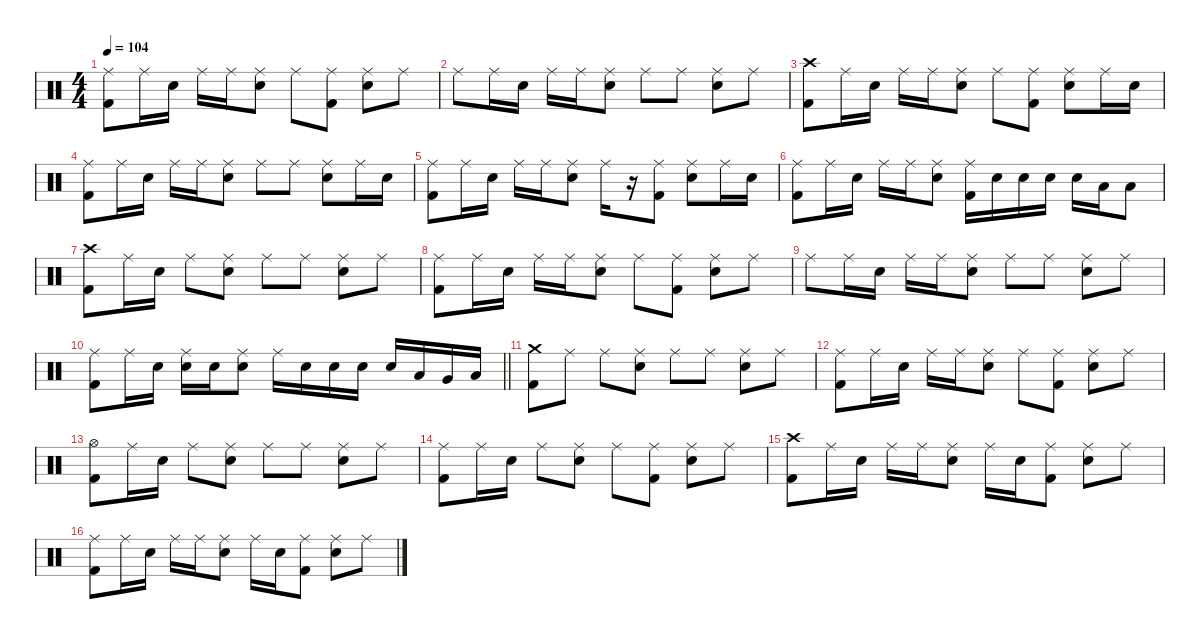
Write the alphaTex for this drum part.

\defaultSystemsLayout 4
\hideDynamics
\bracketExtendMode nobrackets
\singleTrackTrackNamePolicy hidden
\multiTrackTrackNamePolicy hidden
\firstSystemTrackNameMode fullname
\firstSystemTrackNameOrientation horizontal
\otherSystemsTrackNameOrientation horizontal
\track ("Drums" "drm.") {instrument percussion}
\staff {score}
\articulation defaults
\ts (4 4)
\tempo 104
\clef neutral
\ks c
("Ride (middle)" "Kick (hit) 2").8{dy ff beam Down} "Ride (middle)".16{beam Down} "Snare (hit) 2".16{dy mf beam Down} "Ride (middle)".16{dy ff beam Down} "Ride (middle)".16{dy f beam Down} ("Ride (middle)" "Snare (hit) 2").8{dy ff beam Down} "Ride (middle)".8{beam Down} ("Ride (middle)" "Kick (hit) 2").8{beam Down} ("Ride (middle)" "Snare (hit) 2").8{beam Down} "Ride (middle)".8{beam Down} |
"Ride (middle)".8{beam Down} "Ride (middle)".16{beam Down} "Snare (hit) 2".16{dy mf beam Down} "Ride (middle)".16{dy ff beam Down} "Ride (middle)".16{dy f beam Down} ("Ride (middle)" "Snare (hit) 2").8{dy ff beam Down} "Ride (middle)".8{beam Down} "Ride (middle)".8{beam Down} ("Ride (middle)" "Snare (hit) 2").8{beam Down} "Ride (middle)".8{beam Down} |
("Crash high (hit)" "Kick (hit) 2").8{beam Down} "Ride (middle)".16{beam Down} "Snare (hit) 2".16{dy mf beam Down} "Ride (middle)".16{dy ff beam Down} "Ride (middle)".16{dy f beam Down} ("Ride (middle)" "Snare (hit) 2").8{dy ff beam Down} "Ride (middle)".8{beam Down} ("Ride (middle)" "Kick (hit) 2").8{beam Down} ("Ride (middle)" "Snare (hit) 2").8{beam Down} "Ride (middle)".16{beam Down} "Snare (hit) 2".16{dy f beam Down} |
("Ride (middle)" "Kick (hit) 2").8{dy ff beam Down} "Ride (middle)".16{beam Down} "Snare (hit) 2".16{dy mf beam Down} "Ride (middle)".16{dy ff beam Down} "Ride (middle)".16{dy f beam Down} ("Ride (middle)" "Snare (hit) 2").8{dy ff beam Down} "Ride (middle)".8{beam Down} "Ride (middle)".8{beam Down} ("Ride (middle)" "Snare (hit) 2").8{beam Down} "Ride (middle)".16{beam Down} "Snare (hit) 2".16{dy mf beam Down} |
("Ride (middle)" "Kick (hit) 2").8{dy ff beam Down} "Ride (middle)".16{beam Down} "Snare (hit) 2".16{dy f beam Down} "Ride (middle)".16{dy ff beam Down} "Ride (middle)".16{dy f beam Down} ("Ride (middle)" "Snare (hit) 2").8{dy ff beam Down} "Ride (middle)".16{beam Down} r.16{beam Down} ("Ride (middle)" "Kick (hit) 2").8{beam Down} ("Ride (middle)" "Snare (hit) 2").8{beam Down} "Ride (middle)".16{beam Down} "Snare (hit) 2".16{dy mf beam Down} |
("Ride (middle)" "Kick (hit) 2").8{dy ff beam Down} "Ride (middle)".16{beam Down} "Snare (hit) 2".16{dy mf beam Down} "Ride (middle)".16{dy ff beam Down} "Ride (middle)".16{dy f beam Down} ("Ride (middle)" "Snare (hit) 2").8{dy ff beam Down} ("Ride (middle)" "Kick (hit) 2").16{beam Down} "Snare (hit) 2".16{dy mf beam Down} "Snare (hit) 2".16{dy f beam Down} "Snare (hit) 2".16{beam Down} "Snare (hit) 2".16{dy ff beam Down} "Low Tom (hit)".16{beam Down} "Low Floor Tom (hit)".8{beam Down} |
("Crash high (hit)" "Kick (hit) 2").8{beam Down} "Ride (middle)".16{beam Down} "Snare (hit) 2".16{dy mf beam Down} "Ride (middle)".8{dy ff beam Down} ("Ride (middle)" "Snare (hit) 2").8{beam Down} "Ride (middle)".8{beam Down} "Ride (middle)".8{beam Down} ("Ride (middle)" "Snare (hit) 2").8{beam Down} "Ride (middle)".8{beam Down} |
("Ride (middle)" "Kick (hit) 2").8{beam Down} "Ride (middle)".16{beam Down} "Snare (hit) 2".16{dy mf beam Down} "Ride (middle)".16{dy ff beam Down} "Ride (middle)".16{beam Down} ("Ride (middle)" "Snare (hit) 2").8{beam Down} "Ride (middle)".8{beam Down} ("Ride (middle)" "Kick (hit) 2").8{beam Down} ("Ride (middle)" "Snare (hit) 2").8{beam Down} "Ride (middle)".8{beam Down} |
"Ride (middle)".8{beam Down} "Ride (middle)".16{beam Down} "Snare (hit) 2".16{dy mf beam Down} "Ride (middle)".16{dy ff beam Down} "Ride (middle)".16{beam Down} ("Ride (middle)" "Snare (hit) 2").8{beam Down} "Ride (middle)".8{beam Down} "Ride (middle)".8{beam Down} ("Ride (middle)" "Snare (hit) 2").8{beam Down} "Ride (middle)".8{beam Down} |
\barLineRight lightlight
("Ride (middle)" "Kick (hit) 2").8{beam Down} "Ride (middle)".16{beam Down} "Snare (hit) 2".16{dy mf beam Down} ("Ride (middle)" "Snare (hit) 2").16{dy ff beam Down} "Snare (hit) 2".16{dy f beam Down} ("Ride (middle)" "Snare (hit) 2").8{dy ff beam Down} "Ride (middle)".16{beam Down} "Snare (hit) 2".16{dy f beam Down} "Snare (hit) 2".16{beam Down} "Snare (hit) 2".16{beam Down} "Snare (hit) 2".16{dy ff beam Up} "Low Tom (hit)".16{beam Up} "Very Low Tom (hit)".16{beam Up} "Low Floor Tom (hit)".16{beam Up} |
("Crash medium (hit)" "Kick (hit) 2").8{beam Down} "Ride (middle)".8{beam Down} "Ride (middle)".8{beam Down} ("Ride (middle)" "Snare (hit) 2").8{beam Down} "Ride (middle)".8{beam Down} "Ride (middle)".8{beam Down} ("Ride (middle)" "Snare (hit) 2").8{beam Down} "Ride (middle)".8{beam Down} |
("Ride (middle)" "Kick (hit) 2").8{beam Down} "Ride (middle)".16{beam Down} "Snare (hit) 2".16{dy mf beam Down} "Ride (middle)".16{dy ff beam Down} "Ride (middle)".16{beam Down} ("Ride (middle)" "Snare (hit) 2").8{beam Down} "Ride (middle)".8{beam Down} ("Ride (middle)" "Kick (hit) 2").8{beam Down} ("Ride (middle)" "Snare (hit) 2").8{beam Down} "Ride (middle)".8{beam Down} |
("Hi-Hat (open)" "Kick (hit) 2").8{beam Down} "Ride (middle)".16{beam Down} "Snare (hit) 2".16{dy mf beam Down} "Ride (middle)".8{dy ff beam Down} ("Ride (middle)" "Snare (hit) 2").8{beam Down} "Ride (middle)".8{beam Down} "Ride (middle)".8{beam Down} ("Ride (middle)" "Snare (hit) 2").8{beam Down} "Ride (middle)".8{beam Down} |
("Ride (middle)" "Kick (hit) 2").8{beam Down} "Ride (middle)".16{beam Down} "Snare (hit) 2".16{dy mf beam Down} "Ride (middle)".8{dy ff beam Down} ("Ride (middle)" "Snare (hit) 2").8{beam Down} "Ride (middle)".8{beam Down} ("Ride (middle)" "Kick (hit) 2").8{beam Down} ("Ride (middle)" "Snare (hit) 2").8{beam Down} "Ride (middle)".8{beam Down} |
("Crash high (hit)" "Kick (hit) 2").8{beam Down} "Ride (middle)".16{beam Down} "Snare (hit) 2".16{dy mf beam Down} "Ride (middle)".16{dy ff beam Down} "Ride (middle)".16{dy f beam Down} ("Ride (middle)" "Snare (hit) 2").8{dy ff beam Down} "Ride (middle)".16{beam Down} "Snare (hit) 2".16{dy mf beam Down} ("Ride (middle)" "Kick (hit) 2").8{dy ff beam Down} ("Ride (middle)" "Snare (hit) 2").8{beam Down} "Ride (middle)".8{beam Down} |
("Ride (middle)" "Kick (hit) 2").8{beam Down} "Ride (middle)".16{beam Down} "Snare (hit) 2".16{dy mf beam Down} "Ride (middle)".16{dy ff beam Down} "Ride (middle)".16{dy f beam Down} ("Ride (middle)" "Snare (hit) 2").8{beam Down} "Ride (middle)".16{dy ff beam Down} "Snare (hit) 2".16{dy mf beam Down} ("Ride (middle)" "Kick (hit) 2").8{dy ff beam Down} ("Ride (middle)" "Snare (hit) 2").8{beam Down} "Ride (middle)".8{beam Down}
